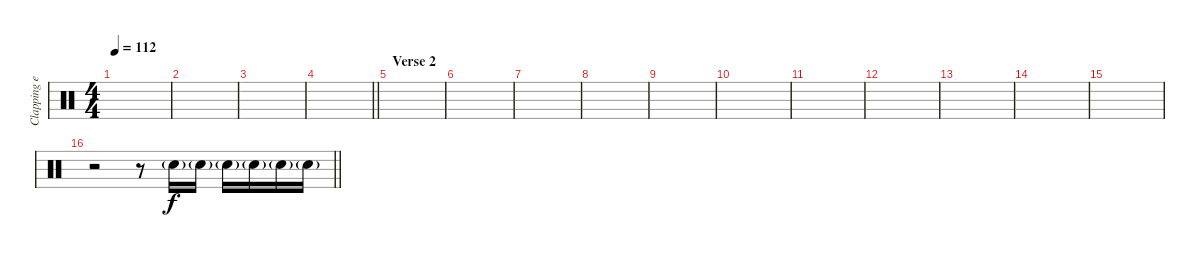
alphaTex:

\track ("Clapping effect thing" "Clapping e") {instrument percussion}
\staff {score}
\articulation defaults
\ts (4 4)
\tempo 112
\clef neutral
\ks c
|
|
|
\barLineRight lightlight
|
\section ("" "Verse 2")
|
|
|
|
|
|
|
|
|
|
|
\barLineRight lightlight
r.2 r.8 "Hand Clap (hit)"{g}.16 "Hand Clap (hit)"{g}.16 "Hand Clap (hit)"{g}.16 "Hand Clap (hit)"{g}.16 "Hand Clap (hit)"{g}.16 "Hand Clap (hit)"{g}.16
